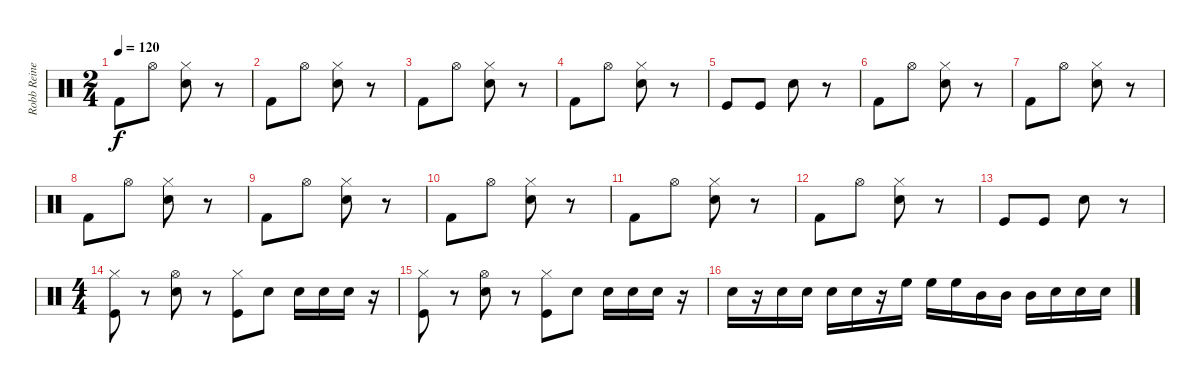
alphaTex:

\track ("Robb Reiner" "Robb Reine") {instrument percussion}
\staff {score}
\articulation defaults
\ts (2 4)
\tempo 120
\clef neutral
\ks c "Kick (hit) 2".8{dy f} "Hi-Hat (open)".8
("Hi-Hat (closed)" "Snare (hit) 2").8 r.8 |
"Kick (hit) 2".8 "Hi-Hat (open)".8 ("Hi-Hat (closed)" "Snare (hit) 2").8 r.8 |
"Kick (hit) 2".8 "Hi-Hat (open)".8 ("Hi-Hat (closed)" "Snare (hit) 2").8 r.8 |
"Kick (hit) 2".8 "Hi-Hat (open)".8 ("Hi-Hat (closed)" "Snare (hit) 2").8 r.8 |
"Kick (hit)".8 "Kick (hit)".8 "Snare (hit) 2".8 r.8 |
"Kick (hit) 2".8 "Hi-Hat (open)".8 ("Hi-Hat (closed)" "Snare (hit) 2").8 r.8 |
"Kick (hit) 2".8 "Hi-Hat (open)".8 ("Hi-Hat (closed)" "Snare (hit) 2").8 r.8 |
"Kick (hit) 2".8 "Hi-Hat (open)".8 ("Hi-Hat (closed)" "Snare (hit) 2").8 r.8 |
"Kick (hit) 2".8 "Hi-Hat (open)".8 ("Hi-Hat (closed)" "Snare (hit) 2").8 r.8 |
"Kick (hit) 2".8 "Hi-Hat (open)".8 ("Hi-Hat (closed)" "Snare (hit) 2").8 r.8 |
"Kick (hit) 2".8 "Hi-Hat (open)".8 ("Hi-Hat (closed)" "Snare (hit) 2").8 r.8 |
"Kick (hit) 2".8 "Hi-Hat (open)".8 ("Hi-Hat (closed)" "Snare (hit) 2").8 r.8 |
"Kick (hit)".8 "Kick (hit)".8 "Snare (hit) 2".8 r.8 |
\ts (4 4)
("Hi-Hat (closed)" "Kick (hit)").8 r.8 ("Hi-Hat (open)" "Snare (hit) 2").8 r.8 ("Hi-Hat (closed)" "Kick (hit)").8 "Snare (hit) 2".8 "Snare (hit) 2".16 "Snare (hit) 2".16 "Snare (hit) 2".16 r.16 |
("Hi-Hat (closed)" "Kick (hit)").8 r.8 ("Hi-Hat (open)" "Snare (hit) 2").8 r.8 ("Hi-Hat (closed)" "Kick (hit)").8 "Snare (hit) 2".8 "Snare (hit) 2".16 "Snare (hit) 2".16 "Snare (hit) 2".16 r.16 |
"Snare (hit) 2".16 r.16 "Snare (hit) 2".16 "Snare (hit) 2".16 "Snare (hit) 2".16 "Snare (hit) 2".16 r.16 "High Floor Tom (hit)".16 "High Floor Tom (hit)".16 "High Floor Tom (hit)".16 "Mid Tom (hit)".16 "Mid Tom (hit)".16 "Mid Tom (hit)".16 "Snare (hit) 2".16 "Snare (hit) 2".16 "Snare (hit) 2".16
